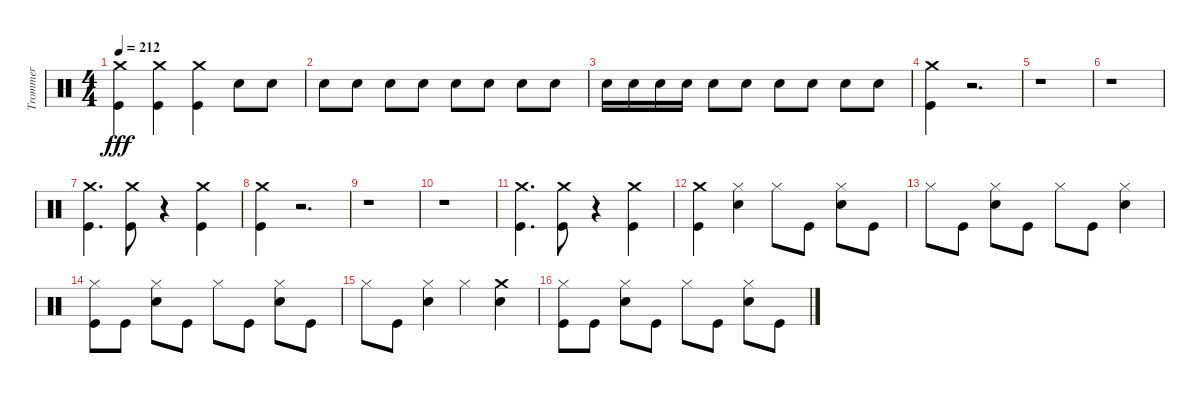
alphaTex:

\track ("Trommer" "Trommer") {instrument percussion}
\staff {score}
\articulation defaults
\ts (4 4)
\tempo 212
\clef neutral
\ks c
("Kick (hit)" "Crash medium (hit)").4{dy fff} ("Kick (hit)" "Crash medium (hit)").4 ("Kick (hit)" "Crash medium (hit)").4 "Snare (hit) 2".8 "Snare (hit) 2".8 |
"Snare (hit) 2".8 "Snare (hit) 2".8 "Snare (hit) 2".8 "Snare (hit) 2".8 "Snare (hit) 2".8 "Snare (hit) 2".8 "Snare (hit) 2".8 "Snare (hit) 2".8 |
"Snare (hit) 2".16 "Snare (hit) 2".16 "Snare (hit) 2".16 "Snare (hit) 2".16 "Snare (hit) 2".8 "Snare (hit) 2".8 "Snare (hit) 2".8 "Snare (hit) 2".8 "Snare (hit) 2".8 "Snare (hit) 2".8 |
("Kick (hit)" "Crash medium (hit)").4 r.2{d} |
r.1 |
r.1 |
("Kick (hit)" "Crash medium (hit)").4{d} ("Kick (hit)" "Crash medium (hit)").8 r.4 ("Crash medium (hit)" "Kick (hit)").4 |
("Kick (hit)" "Crash medium (hit)").4 r.2{d} |
r.1 |
r.1 |
("Kick (hit)" "Crash medium (hit)").4{d} ("Kick (hit)" "Crash medium (hit)").8 r.4 ("Kick (hit)" "Crash medium (hit)").4 |
("Kick (hit)" "Crash medium (hit)").4 ("Snare (hit) 2" "Hi-Hat (closed)").4 "Hi-Hat (closed)".8 "Kick (hit)".8 ("Snare (hit) 2" "Hi-Hat (closed)").8 "Kick (hit)".8 |
"Hi-Hat (closed)".8 "Kick (hit)".8 ("Snare (hit) 2" "Hi-Hat (closed)").8 "Kick (hit)".8 "Hi-Hat (closed)".8 "Kick (hit)".8 ("Hi-Hat (closed)" "Snare (hit) 2").4 |
("Kick (hit)" "Hi-Hat (closed)").8 "Kick (hit)".8 ("Snare (hit) 2" "Hi-Hat (closed)").8 "Kick (hit)".8 "Hi-Hat (closed)".8 "Kick (hit)".8 ("Snare (hit) 2" "Hi-Hat (closed)").8 "Kick (hit)".8 |
"Hi-Hat (closed)".8 "Kick (hit)".8 ("Hi-Hat (closed)" "Snare (hit) 2").4 "Hi-Hat (closed)".4 ("Snare (hit) 2" "Crash medium (hit)").4 |
("Kick (hit)" "Hi-Hat (closed)").8 "Kick (hit)".8 ("Snare (hit) 2" "Hi-Hat (closed)").8 "Kick (hit)".8 "Hi-Hat (closed)".8 "Kick (hit)".8 ("Hi-Hat (closed)" "Snare (hit) 2").8 "Kick (hit)".8
